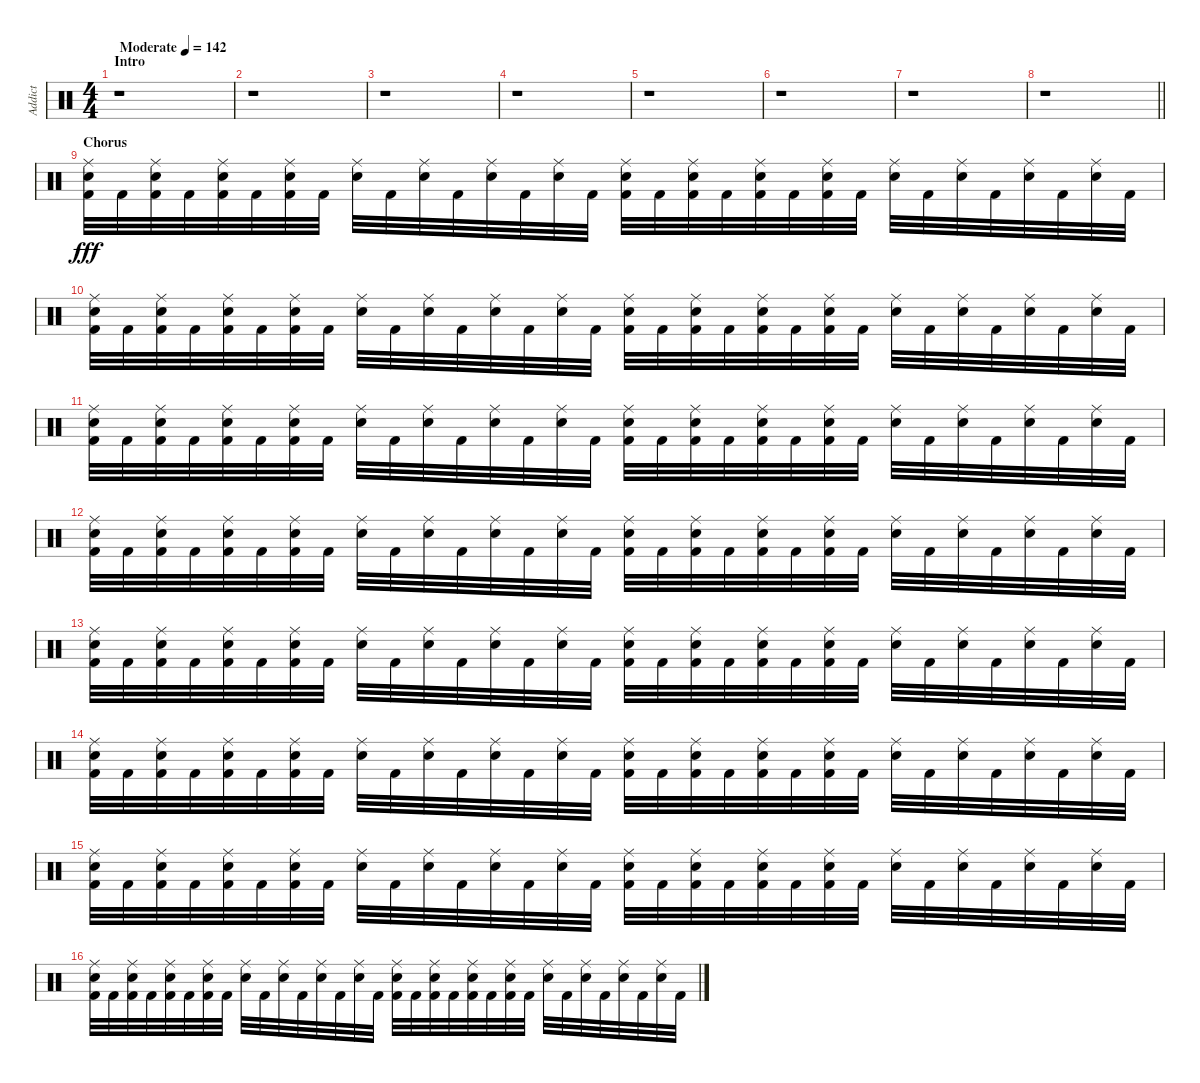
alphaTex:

\track ("Addict" "Addict") {instrument percussion}
\staff {score}
\articulation defaults
\ts (4 4)
\section ("" "Intro")
\tempo (142 "Moderate")
\clef neutral
\ks c
r.1{dy fff} |
r.1 |
r.1 |
r.1 |
r.1 |
r.1 |
r.1 |
\barLineRight lightlight
r.1 |
\section ("" "Chorus")
("Kick (hit) 2" "Snare (hit) 2" "Ride (middle)").32 "Kick (hit) 2".32 ("Kick (hit) 2" "Snare (hit) 2" "Ride (middle)").32 "Kick (hit) 2".32 ("Kick (hit) 2" "Snare (hit) 2" "Ride (middle)").32 "Kick (hit) 2".32 ("Kick (hit) 2" "Snare (hit) 2" "Ride (middle)").32 "Kick (hit) 2".32 ("Snare (hit) 2" "Ride (middle)").32 "Kick (hit) 2".32 ("Snare (hit) 2" "Ride (middle)").32 "Kick (hit) 2".32 ("Snare (hit) 2" "Ride (middle)").32 "Kick (hit) 2".32 ("Snare (hit) 2" "Ride (middle)").32 "Kick (hit) 2".32 ("Kick (hit) 2" "Snare (hit) 2" "Ride (middle)").32 "Kick (hit) 2".32 ("Kick (hit) 2" "Snare (hit) 2" "Ride (middle)").32 "Kick (hit) 2".32 ("Kick (hit) 2" "Snare (hit) 2" "Ride (middle)").32 "Kick (hit) 2".32 ("Kick (hit) 2" "Snare (hit) 2" "Ride (middle)").32 "Kick (hit) 2".32 ("Snare (hit) 2" "Ride (middle)").32 "Kick (hit) 2".32 ("Snare (hit) 2" "Ride (middle)").32 "Kick (hit) 2".32 ("Snare (hit) 2" "Ride (middle)").32 "Kick (hit) 2".32 ("Snare (hit) 2" "Ride (middle)").32 "Kick (hit) 2".32 |
("Kick (hit) 2" "Snare (hit) 2" "Ride (middle)").32 "Kick (hit) 2".32 ("Kick (hit) 2" "Snare (hit) 2" "Ride (middle)").32 "Kick (hit) 2".32 ("Kick (hit) 2" "Snare (hit) 2" "Ride (middle)").32 "Kick (hit) 2".32 ("Kick (hit) 2" "Snare (hit) 2" "Ride (middle)").32 "Kick (hit) 2".32 ("Snare (hit) 2" "Ride (middle)").32 "Kick (hit) 2".32 ("Snare (hit) 2" "Ride (middle)").32 "Kick (hit) 2".32 ("Snare (hit) 2" "Ride (middle)").32 "Kick (hit) 2".32 ("Snare (hit) 2" "Ride (middle)").32 "Kick (hit) 2".32 ("Kick (hit) 2" "Snare (hit) 2" "Ride (middle)").32 "Kick (hit) 2".32 ("Kick (hit) 2" "Snare (hit) 2" "Ride (middle)").32 "Kick (hit) 2".32 ("Kick (hit) 2" "Snare (hit) 2" "Ride (middle)").32 "Kick (hit) 2".32 ("Kick (hit) 2" "Snare (hit) 2" "Ride (middle)").32 "Kick (hit) 2".32 ("Snare (hit) 2" "Ride (middle)").32 "Kick (hit) 2".32 ("Snare (hit) 2" "Ride (middle)").32 "Kick (hit) 2".32 ("Snare (hit) 2" "Ride (middle)").32 "Kick (hit) 2".32 ("Snare (hit) 2" "Ride (middle)").32 "Kick (hit) 2".32 |
("Kick (hit) 2" "Snare (hit) 2" "Ride (middle)").32 "Kick (hit) 2".32 ("Kick (hit) 2" "Snare (hit) 2" "Ride (middle)").32 "Kick (hit) 2".32 ("Kick (hit) 2" "Snare (hit) 2" "Ride (middle)").32 "Kick (hit) 2".32 ("Kick (hit) 2" "Snare (hit) 2" "Ride (middle)").32 "Kick (hit) 2".32 ("Snare (hit) 2" "Ride (middle)").32 "Kick (hit) 2".32 ("Snare (hit) 2" "Ride (middle)").32 "Kick (hit) 2".32 ("Snare (hit) 2" "Ride (middle)").32 "Kick (hit) 2".32 ("Snare (hit) 2" "Ride (middle)").32 "Kick (hit) 2".32 ("Kick (hit) 2" "Snare (hit) 2" "Ride (middle)").32 "Kick (hit) 2".32 ("Kick (hit) 2" "Snare (hit) 2" "Ride (middle)").32 "Kick (hit) 2".32 ("Kick (hit) 2" "Snare (hit) 2" "Ride (middle)").32 "Kick (hit) 2".32 ("Kick (hit) 2" "Snare (hit) 2" "Ride (middle)").32 "Kick (hit) 2".32 ("Snare (hit) 2" "Ride (middle)").32 "Kick (hit) 2".32 ("Snare (hit) 2" "Ride (middle)").32 "Kick (hit) 2".32 ("Snare (hit) 2" "Ride (middle)").32 "Kick (hit) 2".32 ("Snare (hit) 2" "Ride (middle)").32 "Kick (hit) 2".32 |
("Kick (hit) 2" "Snare (hit) 2" "Ride (middle)").32 "Kick (hit) 2".32 ("Kick (hit) 2" "Snare (hit) 2" "Ride (middle)").32 "Kick (hit) 2".32 ("Kick (hit) 2" "Snare (hit) 2" "Ride (middle)").32 "Kick (hit) 2".32 ("Kick (hit) 2" "Snare (hit) 2" "Ride (middle)").32 "Kick (hit) 2".32 ("Snare (hit) 2" "Ride (middle)").32 "Kick (hit) 2".32 ("Snare (hit) 2" "Ride (middle)").32 "Kick (hit) 2".32 ("Snare (hit) 2" "Ride (middle)").32 "Kick (hit) 2".32 ("Snare (hit) 2" "Ride (middle)").32 "Kick (hit) 2".32 ("Kick (hit) 2" "Snare (hit) 2" "Ride (middle)").32 "Kick (hit) 2".32 ("Kick (hit) 2" "Snare (hit) 2" "Ride (middle)").32 "Kick (hit) 2".32 ("Kick (hit) 2" "Snare (hit) 2" "Ride (middle)").32 "Kick (hit) 2".32 ("Kick (hit) 2" "Snare (hit) 2" "Ride (middle)").32 "Kick (hit) 2".32 ("Snare (hit) 2" "Ride (middle)").32 "Kick (hit) 2".32 ("Snare (hit) 2" "Ride (middle)").32 "Kick (hit) 2".32 ("Snare (hit) 2" "Ride (middle)").32 "Kick (hit) 2".32 ("Snare (hit) 2" "Ride (middle)").32 "Kick (hit) 2".32 |
("Kick (hit) 2" "Snare (hit) 2" "Ride (middle)").32 "Kick (hit) 2".32 ("Kick (hit) 2" "Snare (hit) 2" "Ride (middle)").32 "Kick (hit) 2".32 ("Kick (hit) 2" "Snare (hit) 2" "Ride (middle)").32 "Kick (hit) 2".32 ("Kick (hit) 2" "Snare (hit) 2" "Ride (middle)").32 "Kick (hit) 2".32 ("Snare (hit) 2" "Ride (middle)").32 "Kick (hit) 2".32 ("Snare (hit) 2" "Ride (middle)").32 "Kick (hit) 2".32 ("Snare (hit) 2" "Ride (middle)").32 "Kick (hit) 2".32 ("Snare (hit) 2" "Ride (middle)").32 "Kick (hit) 2".32 ("Kick (hit) 2" "Snare (hit) 2" "Ride (middle)").32 "Kick (hit) 2".32 ("Kick (hit) 2" "Snare (hit) 2" "Ride (middle)").32 "Kick (hit) 2".32 ("Kick (hit) 2" "Snare (hit) 2" "Ride (middle)").32 "Kick (hit) 2".32 ("Kick (hit) 2" "Snare (hit) 2" "Ride (middle)").32 "Kick (hit) 2".32 ("Snare (hit) 2" "Ride (middle)").32 "Kick (hit) 2".32 ("Snare (hit) 2" "Ride (middle)").32 "Kick (hit) 2".32 ("Snare (hit) 2" "Ride (middle)").32 "Kick (hit) 2".32 ("Snare (hit) 2" "Ride (middle)").32 "Kick (hit) 2".32 |
("Kick (hit) 2" "Snare (hit) 2" "Ride (middle)").32 "Kick (hit) 2".32 ("Kick (hit) 2" "Snare (hit) 2" "Ride (middle)").32 "Kick (hit) 2".32 ("Kick (hit) 2" "Snare (hit) 2" "Ride (middle)").32 "Kick (hit) 2".32 ("Kick (hit) 2" "Snare (hit) 2" "Ride (middle)").32 "Kick (hit) 2".32 ("Snare (hit) 2" "Ride (middle)").32 "Kick (hit) 2".32 ("Snare (hit) 2" "Ride (middle)").32 "Kick (hit) 2".32 ("Snare (hit) 2" "Ride (middle)").32 "Kick (hit) 2".32 ("Snare (hit) 2" "Ride (middle)").32 "Kick (hit) 2".32 ("Kick (hit) 2" "Snare (hit) 2" "Ride (middle)").32 "Kick (hit) 2".32 ("Kick (hit) 2" "Snare (hit) 2" "Ride (middle)").32 "Kick (hit) 2".32 ("Kick (hit) 2" "Snare (hit) 2" "Ride (middle)").32 "Kick (hit) 2".32 ("Kick (hit) 2" "Snare (hit) 2" "Ride (middle)").32 "Kick (hit) 2".32 ("Snare (hit) 2" "Ride (middle)").32 "Kick (hit) 2".32 ("Snare (hit) 2" "Ride (middle)").32 "Kick (hit) 2".32 ("Snare (hit) 2" "Ride (middle)").32 "Kick (hit) 2".32 ("Snare (hit) 2" "Ride (middle)").32 "Kick (hit) 2".32 |
("Kick (hit) 2" "Snare (hit) 2" "Ride (middle)").32 "Kick (hit) 2".32 ("Kick (hit) 2" "Snare (hit) 2" "Ride (middle)").32 "Kick (hit) 2".32 ("Kick (hit) 2" "Snare (hit) 2" "Ride (middle)").32 "Kick (hit) 2".32 ("Kick (hit) 2" "Snare (hit) 2" "Ride (middle)").32 "Kick (hit) 2".32 ("Snare (hit) 2" "Ride (middle)").32 "Kick (hit) 2".32 ("Snare (hit) 2" "Ride (middle)").32 "Kick (hit) 2".32 ("Snare (hit) 2" "Ride (middle)").32 "Kick (hit) 2".32 ("Snare (hit) 2" "Ride (middle)").32 "Kick (hit) 2".32 ("Kick (hit) 2" "Snare (hit) 2" "Ride (middle)").32 "Kick (hit) 2".32 ("Kick (hit) 2" "Snare (hit) 2" "Ride (middle)").32 "Kick (hit) 2".32 ("Kick (hit) 2" "Snare (hit) 2" "Ride (middle)").32 "Kick (hit) 2".32 ("Kick (hit) 2" "Snare (hit) 2" "Ride (middle)").32 "Kick (hit) 2".32 ("Snare (hit) 2" "Ride (middle)").32 "Kick (hit) 2".32 ("Snare (hit) 2" "Ride (middle)").32 "Kick (hit) 2".32 ("Snare (hit) 2" "Ride (middle)").32 "Kick (hit) 2".32 ("Snare (hit) 2" "Ride (middle)").32 "Kick (hit) 2".32 |
("Kick (hit) 2" "Snare (hit) 2" "Ride (middle)").32 "Kick (hit) 2".32 ("Kick (hit) 2" "Snare (hit) 2" "Ride (middle)").32 "Kick (hit) 2".32 ("Kick (hit) 2" "Snare (hit) 2" "Ride (middle)").32 "Kick (hit) 2".32 ("Kick (hit) 2" "Snare (hit) 2" "Ride (middle)").32 "Kick (hit) 2".32 ("Snare (hit) 2" "Ride (middle)").32 "Kick (hit) 2".32 ("Snare (hit) 2" "Ride (middle)").32 "Kick (hit) 2".32 ("Snare (hit) 2" "Ride (middle)").32 "Kick (hit) 2".32 ("Snare (hit) 2" "Ride (middle)").32 "Kick (hit) 2".32 ("Kick (hit) 2" "Snare (hit) 2" "Ride (middle)").32 "Kick (hit) 2".32 ("Kick (hit) 2" "Snare (hit) 2" "Ride (middle)").32 "Kick (hit) 2".32 ("Kick (hit) 2" "Snare (hit) 2" "Ride (middle)").32 "Kick (hit) 2".32 ("Kick (hit) 2" "Snare (hit) 2" "Ride (middle)").32 "Kick (hit) 2".32 ("Snare (hit) 2" "Ride (middle)").32 "Kick (hit) 2".32 ("Snare (hit) 2" "Ride (middle)").32 "Kick (hit) 2".32 ("Snare (hit) 2" "Ride (middle)").32 "Kick (hit) 2".32 ("Snare (hit) 2" "Ride (middle)").32 "Kick (hit) 2".32
